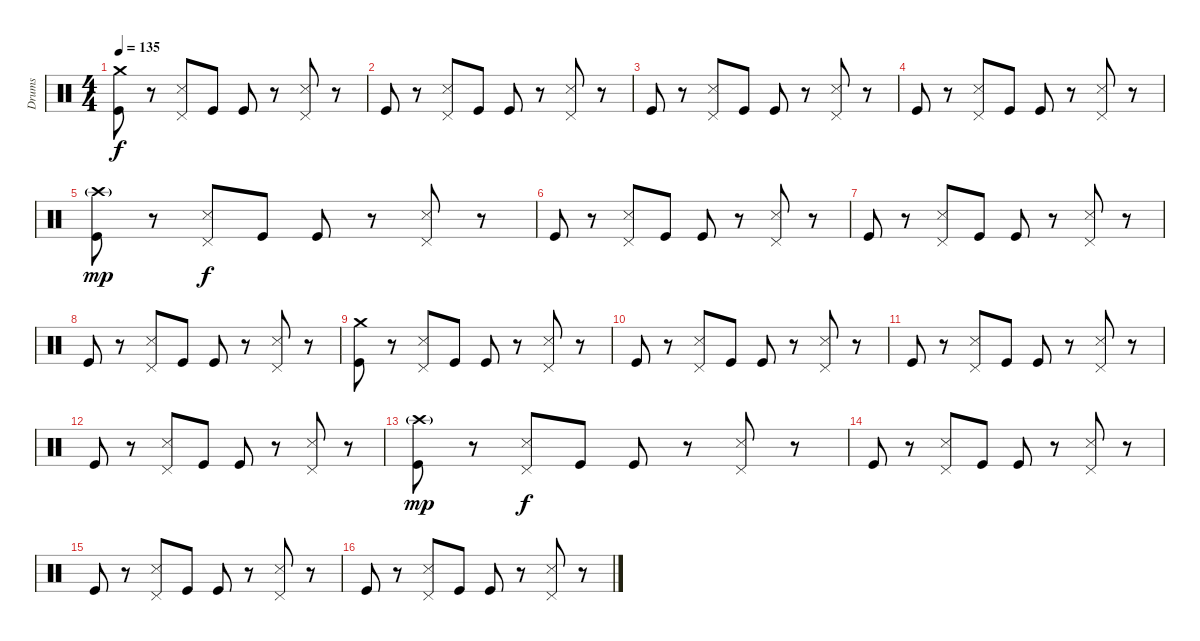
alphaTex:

\track ("Drums" "Drums") {instrument percussion}
\staff {score}
\articulation defaults
\ts (4 4)
\tempo 135
\clef neutral
\ks c
("Crash medium (hit)" "Kick (hit)").8{dy f} r.8 ("Pedal Hi-Hat (hit)" "Snare (side stick) 3").8 "Kick (hit)".8 "Kick (hit)".8 r.8 ("Pedal Hi-Hat (hit)" "Snare (side stick) 3").8 r.8 |
"Kick (hit)".8 r.8 ("Pedal Hi-Hat (hit)" "Snare (side stick) 3").8 "Kick (hit)".8 "Kick (hit)".8 r.8 ("Pedal Hi-Hat (hit)" "Snare (side stick) 3").8 r.8 |
"Kick (hit)".8 r.8 ("Pedal Hi-Hat (hit)" "Snare (side stick) 3").8 "Kick (hit)".8 "Kick (hit)".8 r.8 ("Pedal Hi-Hat (hit)" "Snare (side stick) 3").8 r.8 |
"Kick (hit)".8 r.8 ("Pedal Hi-Hat (hit)" "Snare (side stick) 3").8 "Kick (hit)".8 "Kick (hit)".8 r.8 ("Pedal Hi-Hat (hit)" "Snare (side stick) 3").8 r.8 |
("Crash high (hit)"{g} "Kick (hit)").8{dy mp} r.8 ("Pedal Hi-Hat (hit)" "Snare (side stick) 3").8{dy f} "Kick (hit)".8 "Kick (hit)".8 r.8 ("Pedal Hi-Hat (hit)" "Snare (side stick) 3").8 r.8 |
"Kick (hit)".8 r.8 ("Pedal Hi-Hat (hit)" "Snare (side stick) 3").8 "Kick (hit)".8 "Kick (hit)".8 r.8 ("Pedal Hi-Hat (hit)" "Snare (side stick) 3").8 r.8 |
"Kick (hit)".8 r.8 ("Pedal Hi-Hat (hit)" "Snare (side stick) 3").8 "Kick (hit)".8 "Kick (hit)".8 r.8 ("Pedal Hi-Hat (hit)" "Snare (side stick) 3").8 r.8 |
"Kick (hit)".8 r.8 ("Pedal Hi-Hat (hit)" "Snare (side stick) 3").8 "Kick (hit)".8 "Kick (hit)".8 r.8 ("Pedal Hi-Hat (hit)" "Snare (side stick) 3").8 r.8 |
("Crash medium (hit)" "Kick (hit)").8 r.8 ("Pedal Hi-Hat (hit)" "Snare (side stick) 3").8 "Kick (hit)".8 "Kick (hit)".8 r.8 ("Pedal Hi-Hat (hit)" "Snare (side stick) 3").8 r.8 |
"Kick (hit)".8 r.8 ("Pedal Hi-Hat (hit)" "Snare (side stick) 3").8 "Kick (hit)".8 "Kick (hit)".8 r.8 ("Pedal Hi-Hat (hit)" "Snare (side stick) 3").8 r.8 |
"Kick (hit)".8 r.8 ("Pedal Hi-Hat (hit)" "Snare (side stick) 3").8 "Kick (hit)".8 "Kick (hit)".8 r.8 ("Pedal Hi-Hat (hit)" "Snare (side stick) 3").8 r.8 |
"Kick (hit)".8 r.8 ("Pedal Hi-Hat (hit)" "Snare (side stick) 3").8 "Kick (hit)".8 "Kick (hit)".8 r.8 ("Pedal Hi-Hat (hit)" "Snare (side stick) 3").8 r.8 |
("Crash high (hit)"{g} "Kick (hit)").8{dy mp} r.8 ("Pedal Hi-Hat (hit)" "Snare (side stick) 3").8{dy f} "Kick (hit)".8 "Kick (hit)".8 r.8 ("Pedal Hi-Hat (hit)" "Snare (side stick) 3").8 r.8 |
"Kick (hit)".8 r.8 ("Pedal Hi-Hat (hit)" "Snare (side stick) 3").8 "Kick (hit)".8 "Kick (hit)".8 r.8 ("Pedal Hi-Hat (hit)" "Snare (side stick) 3").8 r.8 |
"Kick (hit)".8 r.8 ("Pedal Hi-Hat (hit)" "Snare (side stick) 3").8 "Kick (hit)".8 "Kick (hit)".8 r.8 ("Pedal Hi-Hat (hit)" "Snare (side stick) 3").8 r.8 |
"Kick (hit)".8 r.8 ("Pedal Hi-Hat (hit)" "Snare (side stick) 3").8 "Kick (hit)".8 "Kick (hit)".8 r.8 ("Pedal Hi-Hat (hit)" "Snare (side stick) 3").8 r.8
